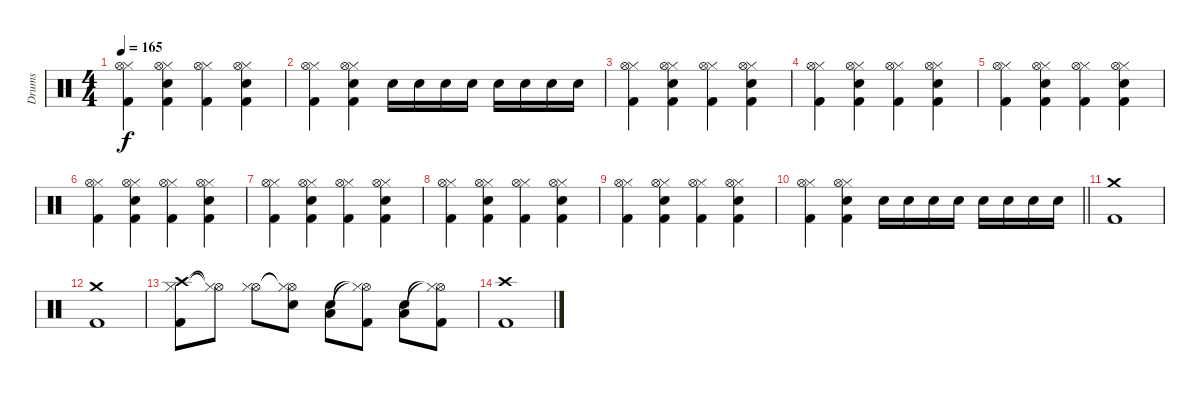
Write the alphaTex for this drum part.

\track ("Drums" "Drums") {instrument percussion}
\staff {score}
\articulation defaults
\ts (4 4)
\tempo 165
\clef neutral
\ks c
("Hi-Hat (closed)" "Hi-Hat (open)" "Kick (hit) 2").4{dy f} ("Hi-Hat (closed)" "Hi-Hat (open)" "Snare (hit) 2" "Kick (hit) 2").4 ("Hi-Hat (closed)" "Hi-Hat (open)" "Kick (hit) 2").4 ("Hi-Hat (closed)" "Hi-Hat (open)" "Snare (hit) 2" "Kick (hit) 2").4 |
("Hi-Hat (closed)" "Hi-Hat (open)" "Kick (hit) 2").4 ("Hi-Hat (closed)" "Hi-Hat (open)" "Snare (hit) 2" "Kick (hit) 2").4 "Snare (hit) 2".16 "Snare (hit) 2".16 "Snare (hit) 2".16 "Snare (hit) 2".16 "Snare (hit) 2".16 "Snare (hit) 2".16 "Snare (hit) 2".16 "Snare (hit) 2".16 |
("Hi-Hat (closed)" "Hi-Hat (open)" "Kick (hit) 2").4 ("Hi-Hat (closed)" "Hi-Hat (open)" "Snare (hit) 2" "Kick (hit) 2").4 ("Hi-Hat (closed)" "Hi-Hat (open)" "Kick (hit) 2").4 ("Hi-Hat (closed)" "Hi-Hat (open)" "Snare (hit) 2" "Kick (hit) 2").4 |
("Hi-Hat (closed)" "Hi-Hat (open)" "Kick (hit) 2").4 ("Hi-Hat (closed)" "Hi-Hat (open)" "Snare (hit) 2" "Kick (hit) 2").4 ("Hi-Hat (closed)" "Hi-Hat (open)" "Kick (hit) 2").4 ("Hi-Hat (closed)" "Hi-Hat (open)" "Snare (hit) 2" "Kick (hit) 2").4 |
("Hi-Hat (closed)" "Hi-Hat (open)" "Kick (hit) 2").4 ("Hi-Hat (closed)" "Hi-Hat (open)" "Snare (hit) 2" "Kick (hit) 2").4 ("Hi-Hat (closed)" "Hi-Hat (open)" "Kick (hit) 2").4 ("Hi-Hat (closed)" "Hi-Hat (open)" "Snare (hit) 2" "Kick (hit) 2").4 |
("Hi-Hat (closed)" "Hi-Hat (open)" "Kick (hit) 2").4 ("Hi-Hat (closed)" "Hi-Hat (open)" "Snare (hit) 2" "Kick (hit) 2").4 ("Hi-Hat (closed)" "Hi-Hat (open)" "Kick (hit) 2").4 ("Hi-Hat (closed)" "Hi-Hat (open)" "Snare (hit) 2" "Kick (hit) 2").4 |
("Hi-Hat (closed)" "Hi-Hat (open)" "Kick (hit) 2").4 ("Hi-Hat (closed)" "Hi-Hat (open)" "Snare (hit) 2" "Kick (hit) 2").4 ("Hi-Hat (closed)" "Hi-Hat (open)" "Kick (hit) 2").4 ("Hi-Hat (closed)" "Hi-Hat (open)" "Snare (hit) 2" "Kick (hit) 2").4 |
("Hi-Hat (closed)" "Hi-Hat (open)" "Kick (hit) 2").4 ("Hi-Hat (closed)" "Hi-Hat (open)" "Snare (hit) 2" "Kick (hit) 2").4 ("Hi-Hat (closed)" "Hi-Hat (open)" "Kick (hit) 2").4 ("Hi-Hat (closed)" "Hi-Hat (open)" "Snare (hit) 2" "Kick (hit) 2").4 |
("Hi-Hat (closed)" "Hi-Hat (open)" "Kick (hit) 2").4 ("Hi-Hat (closed)" "Hi-Hat (open)" "Snare (hit) 2" "Kick (hit) 2").4 ("Hi-Hat (closed)" "Hi-Hat (open)" "Kick (hit) 2").4 ("Hi-Hat (closed)" "Hi-Hat (open)" "Snare (hit) 2" "Kick (hit) 2").4 |
\barLineRight lightlight
("Hi-Hat (closed)" "Hi-Hat (open)" "Kick (hit) 2").4 ("Hi-Hat (closed)" "Hi-Hat (open)" "Snare (hit) 2" "Kick (hit) 2").4 "Snare (hit) 2".16 "Snare (hit) 2".16 "Snare (hit) 2".16 "Snare (hit) 2".16 "Snare (hit) 2".16 "Snare (hit) 2".16 "Snare (hit) 2".16 "Snare (hit) 2".16 |
("Crash medium (hit)" "Kick (hit) 2").1 |
("Crash medium (hit)" "Kick (hit) 2").1 |
("Crash high (hit)" "Hi-Hat (closed)" "Kick (hit) 2").8 ("Hi-Hat (open)"{t} "Hi-Hat (closed)"{t}).8 ("Hi-Hat (open)" "Hi-Hat (closed)").8 ("Hi-Hat (open)"{t} "Hi-Hat (closed)"{t} "Snare (hit) 2").8 ("Snare (hit) 2" "Low Tom (hit)").8 ("Hi-Hat (open)"{t} "Hi-Hat (closed)"{t} "Kick (hit) 2").8 ("Snare (hit) 2" "Low Tom (hit)").8 ("Hi-Hat (open)"{t} "Hi-Hat (closed)"{t} "Kick (hit) 2").8 |
("Crash high (hit)" "Kick (hit) 2").1
